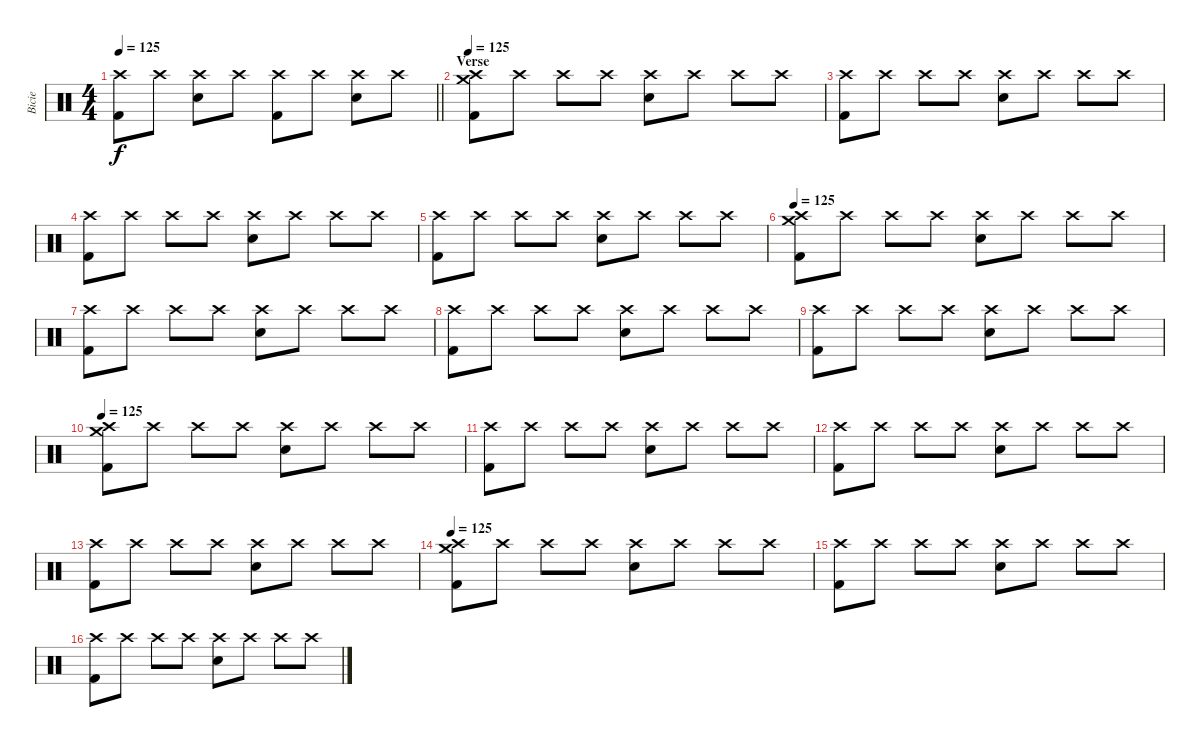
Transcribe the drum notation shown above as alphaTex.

\track ("Bicie" "Bicie") {instrument percussion}
\staff {score}
\articulation defaults
\ts (4 4)
\tempo 125
\clef neutral
\barLineRight lightlight
\ks c
("Crash high (hit)" "Kick (hit) 2").8{dy f} "Crash high (hit)".8 ("Crash high (hit)" "Snare (hit) 2").8 "Crash high (hit)".8 ("Crash high (hit)" "Kick (hit) 2").8 "Crash high (hit)".8 ("Crash high (hit)" "Snare (hit) 2").8 "Crash high (hit)".8 |
\section ("" "Verse")
\tempo 125
("Crash medium (hit)" "Crash high (hit)" "Kick (hit) 2").8 "Crash high (hit)".8 "Crash high (hit)".8 "Crash high (hit)".8 ("Crash high (hit)" "Snare (hit) 2").8 "Crash high (hit)".8 "Crash high (hit)".8 "Crash high (hit)".8 |
("Crash high (hit)" "Kick (hit) 2").8 "Crash high (hit)".8 "Crash high (hit)".8 "Crash high (hit)".8 ("Crash high (hit)" "Snare (hit) 2").8 "Crash high (hit)".8 "Crash high (hit)".8 "Crash high (hit)".8 |
("Crash high (hit)" "Kick (hit) 2").8 "Crash high (hit)".8 "Crash high (hit)".8 "Crash high (hit)".8 ("Crash high (hit)" "Snare (hit) 2").8 "Crash high (hit)".8 "Crash high (hit)".8 "Crash high (hit)".8 |
("Crash high (hit)" "Kick (hit) 2").8 "Crash high (hit)".8 "Crash high (hit)".8 "Crash high (hit)".8 ("Crash high (hit)" "Snare (hit) 2").8 "Crash high (hit)".8 "Crash high (hit)".8 "Crash high (hit)".8 |
\tempo 125
("Crash medium (hit)" "Crash high (hit)" "Kick (hit) 2").8 "Crash high (hit)".8 "Crash high (hit)".8 "Crash high (hit)".8 ("Crash high (hit)" "Snare (hit) 2").8 "Crash high (hit)".8 "Crash high (hit)".8 "Crash high (hit)".8 |
("Crash high (hit)" "Kick (hit) 2").8 "Crash high (hit)".8 "Crash high (hit)".8 "Crash high (hit)".8 ("Crash high (hit)" "Snare (hit) 2").8 "Crash high (hit)".8 "Crash high (hit)".8 "Crash high (hit)".8 |
("Crash high (hit)" "Kick (hit) 2").8 "Crash high (hit)".8 "Crash high (hit)".8 "Crash high (hit)".8 ("Crash high (hit)" "Snare (hit) 2").8 "Crash high (hit)".8 "Crash high (hit)".8 "Crash high (hit)".8 |
("Crash high (hit)" "Kick (hit) 2").8 "Crash high (hit)".8 "Crash high (hit)".8 "Crash high (hit)".8 ("Crash high (hit)" "Snare (hit) 2").8 "Crash high (hit)".8 "Crash high (hit)".8 "Crash high (hit)".8 |
\tempo 125
("Crash medium (hit)" "Crash high (hit)" "Kick (hit) 2").8 "Crash high (hit)".8 "Crash high (hit)".8 "Crash high (hit)".8 ("Crash high (hit)" "Snare (hit) 2").8 "Crash high (hit)".8 "Crash high (hit)".8 "Crash high (hit)".8 |
("Crash high (hit)" "Kick (hit) 2").8 "Crash high (hit)".8 "Crash high (hit)".8 "Crash high (hit)".8 ("Crash high (hit)" "Snare (hit) 2").8 "Crash high (hit)".8 "Crash high (hit)".8 "Crash high (hit)".8 |
("Crash high (hit)" "Kick (hit) 2").8 "Crash high (hit)".8 "Crash high (hit)".8 "Crash high (hit)".8 ("Crash high (hit)" "Snare (hit) 2").8 "Crash high (hit)".8 "Crash high (hit)".8 "Crash high (hit)".8 |
("Crash high (hit)" "Kick (hit) 2").8 "Crash high (hit)".8 "Crash high (hit)".8 "Crash high (hit)".8 ("Crash high (hit)" "Snare (hit) 2").8 "Crash high (hit)".8 "Crash high (hit)".8 "Crash high (hit)".8 |
\tempo 125
("Crash medium (hit)" "Crash high (hit)" "Kick (hit) 2").8 "Crash high (hit)".8 "Crash high (hit)".8 "Crash high (hit)".8 ("Crash high (hit)" "Snare (hit) 2").8 "Crash high (hit)".8 "Crash high (hit)".8 "Crash high (hit)".8 |
("Crash high (hit)" "Kick (hit) 2").8 "Crash high (hit)".8 "Crash high (hit)".8 "Crash high (hit)".8 ("Crash high (hit)" "Snare (hit) 2").8 "Crash high (hit)".8 "Crash high (hit)".8 "Crash high (hit)".8 |
("Crash high (hit)" "Kick (hit) 2").8 "Crash high (hit)".8 "Crash high (hit)".8 "Crash high (hit)".8 ("Crash high (hit)" "Snare (hit) 2").8 "Crash high (hit)".8 "Crash high (hit)".8 "Crash high (hit)".8
